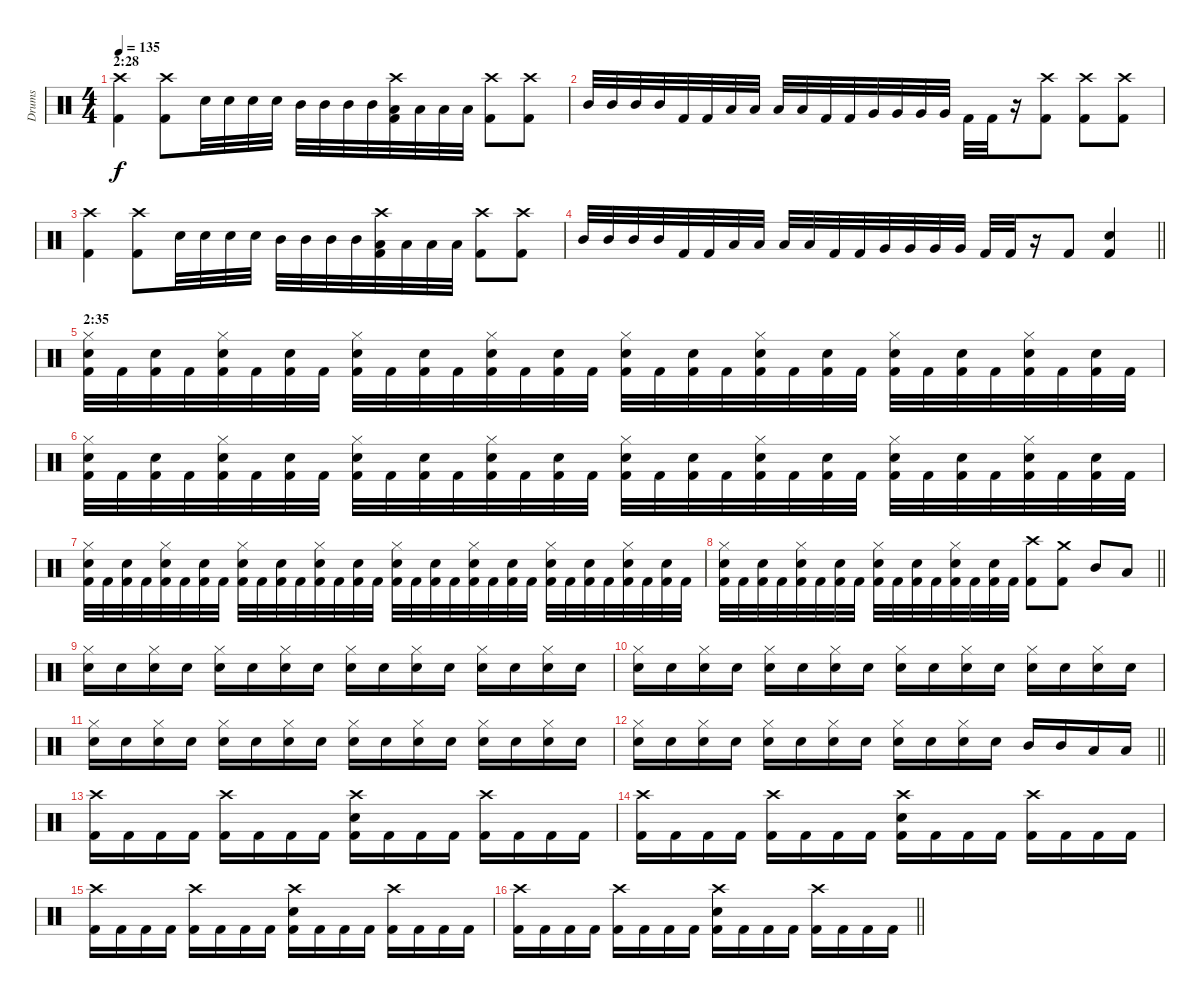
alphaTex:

\track ("Drums" "Drums") {instrument percussion}
\staff {score}
\articulation defaults
\ts (4 4)
\section ("" "2:28")
\tempo 135
\clef neutral
\ks c
("Crash high (hit)" "Kick (hit) 2").4{dy f} ("Crash high (hit)" "Kick (hit) 2").8 "Electric Snare (hit)".32 "Electric Snare (hit)".32 "Electric Snare (hit)".32 "Electric Snare (hit)".32 "Mid Tom (hit)".32 "Mid Tom (hit)".32 "Mid Tom (hit)".32 "Mid Tom (hit)".32 ("Crash high (hit)" "Low Tom (hit)" "Kick (hit) 2").32 "Low Tom (hit)".32 "Low Tom (hit)".32 "Low Tom (hit)".32 ("Crash high (hit)" "Kick (hit) 2").8 ("Crash high (hit)" "Kick (hit) 2").8 |
"Mid Tom (hit)".32 "Mid Tom (hit)".32 "Mid Tom (hit)".32 "Mid Tom (hit)".32 "Kick (hit) 2".32 "Kick (hit) 2".32 "Low Tom (hit)".32 "Low Tom (hit)".32 "Low Tom (hit)".32 "Low Tom (hit)".32 "Kick (hit) 2".32 "Kick (hit) 2".32 "Very Low Tom (hit)".32 "Very Low Tom (hit)".32 "Very Low Tom (hit)".32 "Very Low Tom (hit)".32 "Kick (hit) 2".32 "Kick (hit) 2".32 r.16 ("Crash high (hit)" "Kick (hit) 2").8 ("Crash high (hit)" "Kick (hit) 2").8 ("Crash high (hit)" "Kick (hit) 2").8 |
("Crash high (hit)" "Kick (hit) 2").4 ("Crash high (hit)" "Kick (hit) 2").8 "Electric Snare (hit)".32 "Electric Snare (hit)".32 "Electric Snare (hit)".32 "Electric Snare (hit)".32 "Mid Tom (hit)".32 "Mid Tom (hit)".32 "Mid Tom (hit)".32 "Mid Tom (hit)".32 ("Crash high (hit)" "Low Tom (hit)" "Kick (hit) 2").32 "Low Tom (hit)".32 "Low Tom (hit)".32 "Low Tom (hit)".32 ("Crash high (hit)" "Kick (hit) 2").8 ("Crash high (hit)" "Kick (hit) 2").8 |
\barLineRight lightlight "Mid Tom (hit)".32 "Mid Tom (hit)".32 "Mid Tom (hit)".32 "Mid Tom (hit)".32 "Kick (hit) 2".32 "Kick (hit) 2".32 "Low Tom (hit)".32 "Low Tom (hit)".32 "Low Tom (hit)".32 "Low Tom (hit)".32 "Kick (hit) 2".32 "Kick (hit) 2".32 "Very Low Tom (hit)".32 "Very Low Tom (hit)".32 "Very Low Tom (hit)".32 "Very Low Tom (hit)".32 "Kick (hit) 2".32 "Kick (hit) 2".32
r.16 "Kick (hit) 2".8 ("Electric Snare (hit)" "Kick (hit) 2").4 |
\section ("" "2:35")
("Electric Snare (hit)" "Hi-Hat (closed)" "Kick (hit) 2").32 "Kick (hit) 2".32 ("Electric Snare (hit)" "Kick (hit) 2").32 "Kick (hit) 2".32 ("Electric Snare (hit)" "Hi-Hat (closed)" "Kick (hit) 2").32 "Kick (hit) 2".32 ("Electric Snare (hit)" "Kick (hit) 2").32 "Kick (hit) 2".32 ("Electric Snare (hit)" "Hi-Hat (closed)" "Kick (hit) 2").32 "Kick (hit) 2".32 ("Electric Snare (hit)" "Kick (hit) 2").32 "Kick (hit) 2".32 ("Electric Snare (hit)" "Hi-Hat (closed)" "Kick (hit) 2").32 "Kick (hit) 2".32 ("Electric Snare (hit)" "Kick (hit) 2").32 "Kick (hit) 2".32 ("Electric Snare (hit)" "Hi-Hat (closed)" "Kick (hit) 2").32 "Kick (hit) 2".32 ("Electric Snare (hit)" "Kick (hit) 2").32 "Kick (hit) 2".32 ("Electric Snare (hit)" "Hi-Hat (closed)" "Kick (hit) 2").32 "Kick (hit) 2".32 ("Electric Snare (hit)" "Kick (hit) 2").32 "Kick (hit) 2".32 ("Electric Snare (hit)" "Hi-Hat (closed)" "Kick (hit) 2").32 "Kick (hit) 2".32 ("Electric Snare (hit)" "Kick (hit) 2").32 "Kick (hit) 2".32 ("Electric Snare (hit)" "Hi-Hat (closed)" "Kick (hit) 2").32 "Kick (hit) 2".32 ("Electric Snare (hit)" "Kick (hit) 2").32 "Kick (hit) 2".32 |
("Electric Snare (hit)" "Hi-Hat (closed)" "Kick (hit) 2").32 "Kick (hit) 2".32 ("Electric Snare (hit)" "Kick (hit) 2").32 "Kick (hit) 2".32 ("Electric Snare (hit)" "Hi-Hat (closed)" "Kick (hit) 2").32 "Kick (hit) 2".32 ("Electric Snare (hit)" "Kick (hit) 2").32 "Kick (hit) 2".32 ("Electric Snare (hit)" "Hi-Hat (closed)" "Kick (hit) 2").32 "Kick (hit) 2".32 ("Electric Snare (hit)" "Kick (hit) 2").32 "Kick (hit) 2".32 ("Electric Snare (hit)" "Hi-Hat (closed)" "Kick (hit) 2").32 "Kick (hit) 2".32 ("Electric Snare (hit)" "Kick (hit) 2").32 "Kick (hit) 2".32 ("Electric Snare (hit)" "Hi-Hat (closed)" "Kick (hit) 2").32 "Kick (hit) 2".32 ("Electric Snare (hit)" "Kick (hit) 2").32 "Kick (hit) 2".32 ("Electric Snare (hit)" "Hi-Hat (closed)" "Kick (hit) 2").32 "Kick (hit) 2".32 ("Electric Snare (hit)" "Kick (hit) 2").32 "Kick (hit) 2".32 ("Electric Snare (hit)" "Hi-Hat (closed)" "Kick (hit) 2").32 "Kick (hit) 2".32 ("Electric Snare (hit)" "Kick (hit) 2").32 "Kick (hit) 2".32 ("Electric Snare (hit)" "Hi-Hat (closed)" "Kick (hit) 2").32 "Kick (hit) 2".32 ("Electric Snare (hit)" "Kick (hit) 2").32 "Kick (hit) 2".32 |
("Electric Snare (hit)" "Hi-Hat (closed)" "Kick (hit) 2").32 "Kick (hit) 2".32 ("Electric Snare (hit)" "Kick (hit) 2").32 "Kick (hit) 2".32 ("Electric Snare (hit)" "Hi-Hat (closed)" "Kick (hit) 2").32 "Kick (hit) 2".32 ("Electric Snare (hit)" "Kick (hit) 2").32 "Kick (hit) 2".32 ("Electric Snare (hit)" "Hi-Hat (closed)" "Kick (hit) 2").32 "Kick (hit) 2".32 ("Electric Snare (hit)" "Kick (hit) 2").32 "Kick (hit) 2".32 ("Electric Snare (hit)" "Hi-Hat (closed)" "Kick (hit) 2").32 "Kick (hit) 2".32 ("Electric Snare (hit)" "Kick (hit) 2").32 "Kick (hit) 2".32 ("Electric Snare (hit)" "Hi-Hat (closed)" "Kick (hit) 2").32 "Kick (hit) 2".32 ("Electric Snare (hit)" "Kick (hit) 2").32 "Kick (hit) 2".32 ("Electric Snare (hit)" "Hi-Hat (closed)" "Kick (hit) 2").32 "Kick (hit) 2".32 ("Electric Snare (hit)" "Kick (hit) 2").32 "Kick (hit) 2".32 ("Electric Snare (hit)" "Hi-Hat (closed)" "Kick (hit) 2").32 "Kick (hit) 2".32 ("Electric Snare (hit)" "Kick (hit) 2").32 "Kick (hit) 2".32 ("Electric Snare (hit)" "Hi-Hat (closed)" "Kick (hit) 2").32 "Kick (hit) 2".32 ("Electric Snare (hit)" "Kick (hit) 2").32 "Kick (hit) 2".32 |
\barLineRight lightlight
("Electric Snare (hit)" "Hi-Hat (closed)" "Kick (hit) 2").32 "Kick (hit) 2".32 ("Electric Snare (hit)" "Kick (hit) 2").32 "Kick (hit) 2".32 ("Electric Snare (hit)" "Hi-Hat (closed)" "Kick (hit) 2").32 "Kick (hit) 2".32 ("Electric Snare (hit)" "Kick (hit) 2").32 "Kick (hit) 2".32 ("Electric Snare (hit)" "Hi-Hat (closed)" "Kick (hit) 2").32 "Kick (hit) 2".32 ("Electric Snare (hit)" "Kick (hit) 2").32 "Kick (hit) 2".32 ("Electric Snare (hit)" "Hi-Hat (closed)" "Kick (hit) 2").32 "Kick (hit) 2".32 ("Electric Snare (hit)" "Kick (hit) 2").32 "Kick (hit) 2".32 ("Crash high (hit)" "Kick (hit) 2").8 ("Crash medium (hit)" "Kick (hit) 2").8 "Mid Tom (hit)".8 "Low Tom (hit)".8 |
("Electric Snare (hit)" "Hi-Hat (closed)").16 "Electric Snare (hit)".16 ("Electric Snare (hit)" "Hi-Hat (closed)").16 "Electric Snare (hit)".16 ("Electric Snare (hit)" "Hi-Hat (closed)").16 "Electric Snare (hit)".16 ("Electric Snare (hit)" "Hi-Hat (closed)").16 "Electric Snare (hit)".16 ("Electric Snare (hit)" "Hi-Hat (closed)").16 "Electric Snare (hit)".16 ("Electric Snare (hit)" "Hi-Hat (closed)").16 "Electric Snare (hit)".16 ("Electric Snare (hit)" "Hi-Hat (closed)").16 "Electric Snare (hit)".16 ("Electric Snare (hit)" "Hi-Hat (closed)").16 "Electric Snare (hit)".16 |
("Electric Snare (hit)" "Hi-Hat (closed)").16 "Electric Snare (hit)".16 ("Electric Snare (hit)" "Hi-Hat (closed)").16 "Electric Snare (hit)".16 ("Electric Snare (hit)" "Hi-Hat (closed)").16 "Electric Snare (hit)".16 ("Electric Snare (hit)" "Hi-Hat (closed)").16 "Electric Snare (hit)".16 ("Electric Snare (hit)" "Hi-Hat (closed)").16 "Electric Snare (hit)".16 ("Electric Snare (hit)" "Hi-Hat (closed)").16 "Electric Snare (hit)".16 ("Electric Snare (hit)" "Hi-Hat (closed)").16 "Electric Snare (hit)".16 ("Electric Snare (hit)" "Hi-Hat (closed)").16 "Electric Snare (hit)".16 |
("Electric Snare (hit)" "Hi-Hat (closed)").16 "Electric Snare (hit)".16 ("Electric Snare (hit)" "Hi-Hat (closed)").16 "Electric Snare (hit)".16 ("Electric Snare (hit)" "Hi-Hat (closed)").16 "Electric Snare (hit)".16 ("Electric Snare (hit)" "Hi-Hat (closed)").16 "Electric Snare (hit)".16 ("Electric Snare (hit)" "Hi-Hat (closed)").16 "Electric Snare (hit)".16 ("Electric Snare (hit)" "Hi-Hat (closed)").16 "Electric Snare (hit)".16 ("Electric Snare (hit)" "Hi-Hat (closed)").16 "Electric Snare (hit)".16 ("Electric Snare (hit)" "Hi-Hat (closed)").16 "Electric Snare (hit)".16 |
\barLineRight lightlight
("Electric Snare (hit)" "Hi-Hat (closed)").16 "Electric Snare (hit)".16 ("Electric Snare (hit)" "Hi-Hat (closed)").16 "Electric Snare (hit)".16 ("Electric Snare (hit)" "Hi-Hat (closed)").16 "Electric Snare (hit)".16 ("Electric Snare (hit)" "Hi-Hat (closed)").16 "Electric Snare (hit)".16 ("Electric Snare (hit)" "Hi-Hat (closed)").16 "Electric Snare (hit)".16 ("Electric Snare (hit)" "Hi-Hat (closed)").16 "Electric Snare (hit)".16 "Mid Tom (hit)".16 "Mid Tom (hit)".16 "Low Tom (hit)".16 "Low Tom (hit)".16 |
("Crash high (hit)" "Kick (hit) 2").16 "Kick (hit) 2".16 "Kick (hit) 2".16 "Kick (hit) 2".16 ("Crash high (hit)" "Kick (hit) 2").16 "Kick (hit) 2".16 "Kick (hit) 2".16 "Kick (hit) 2".16 ("Crash high (hit)" "Electric Snare (hit)" "Kick (hit) 2").16 "Kick (hit) 2".16 "Kick (hit) 2".16 "Kick (hit) 2".16 ("Crash high (hit)" "Kick (hit) 2").16 "Kick (hit) 2".16 "Kick (hit) 2".16 "Kick (hit) 2".16 |
("Crash high (hit)" "Kick (hit) 2").16 "Kick (hit) 2".16 "Kick (hit) 2".16 "Kick (hit) 2".16 ("Crash high (hit)" "Kick (hit) 2").16 "Kick (hit) 2".16 "Kick (hit) 2".16 "Kick (hit) 2".16 ("Crash high (hit)" "Electric Snare (hit)" "Kick (hit) 2").16 "Kick (hit) 2".16 "Kick (hit) 2".16 "Kick (hit) 2".16 ("Crash high (hit)" "Kick (hit) 2").16 "Kick (hit) 2".16 "Kick (hit) 2".16 "Kick (hit) 2".16 |
("Crash high (hit)" "Kick (hit) 2").16 "Kick (hit) 2".16 "Kick (hit) 2".16 "Kick (hit) 2".16 ("Crash high (hit)" "Kick (hit) 2").16 "Kick (hit) 2".16 "Kick (hit) 2".16 "Kick (hit) 2".16 ("Crash high (hit)" "Electric Snare (hit)" "Kick (hit) 2").16 "Kick (hit) 2".16 "Kick (hit) 2".16 "Kick (hit) 2".16 ("Crash high (hit)" "Kick (hit) 2").16 "Kick (hit) 2".16 "Kick (hit) 2".16 "Kick (hit) 2".16 |
\barLineRight lightlight
("Crash high (hit)" "Kick (hit) 2").16 "Kick (hit) 2".16 "Kick (hit) 2".16 "Kick (hit) 2".16 ("Crash high (hit)" "Kick (hit) 2").16 "Kick (hit) 2".16 "Kick (hit) 2".16 "Kick (hit) 2".16 ("Crash high (hit)" "Electric Snare (hit)" "Kick (hit) 2").16 "Kick (hit) 2".16 "Kick (hit) 2".16 "Kick (hit) 2".16 ("Crash high (hit)" "Kick (hit) 2").16 "Kick (hit) 2".16 "Kick (hit) 2".16 "Kick (hit) 2".16
